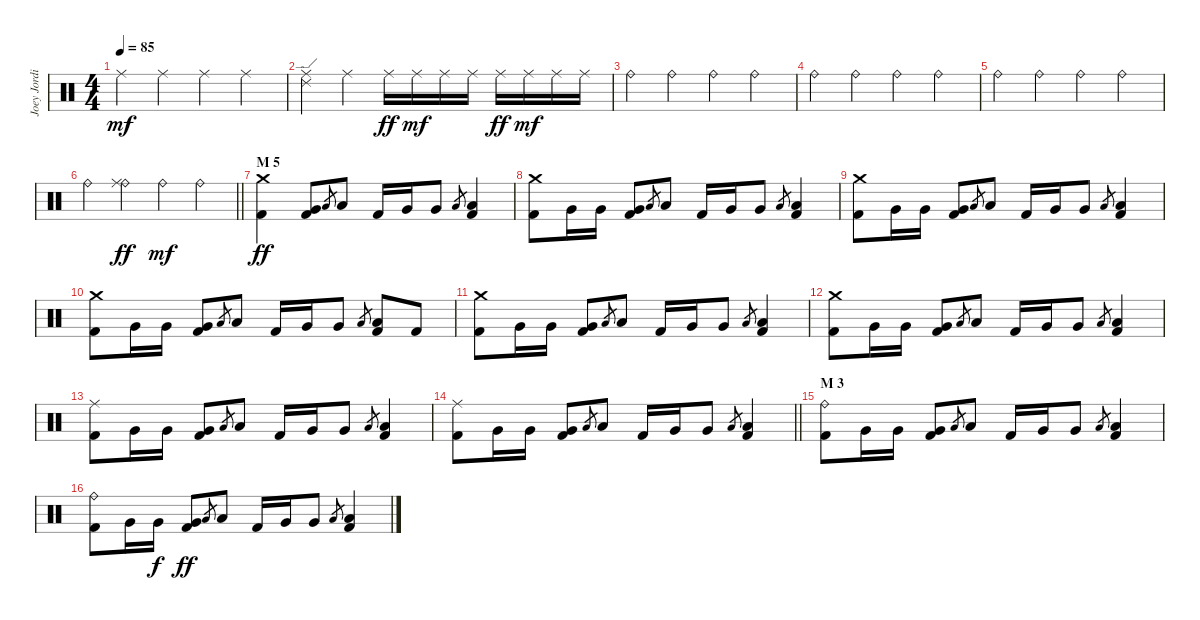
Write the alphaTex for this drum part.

\track ("Joey Jordison" "Joey Jordi") {instrument percussion}
\staff {score}
\articulation defaults
\ts (4 4)
\tempo 85
\clef neutral
\ks c "Ride (middle)".4{dy mf} "Ride (middle)".4 "Ride (middle)".4 "Ride (middle)".4
|
("Ride (middle)" "Ride (edge) 2").4 "Ride (middle)".4 "Ride (middle)".16{dy ff} "Ride (middle)".16{dy mf} "Ride (middle)".16 "Ride (middle)".16 "Ride (middle)".16{dy ff} "Ride (middle)".16{dy mf} "Ride (middle)".16 "Ride (middle)".16 |
"Ride (bell)".4 "Ride (bell)".4 "Ride (bell)".4 "Ride (bell)".4 |
"Ride (bell)".4 "Ride (bell)".4 "Ride (bell)".4 "Ride (bell)".4 |
"Ride (bell)".4 "Ride (bell)".4 "Ride (bell)".4 "Ride (bell)".4 |
\barLineRight lightlight "Ride (bell)".4
("Ride (bell)" "Ride (middle)").4{dy ff} "Ride (bell)".4{dy mf} "Ride (bell)".4 |
\section ("" "M 5")
("Crash medium (hit)" "Kick (hit) 2").4{dy ff} ("Very Low Tom (hit)" "Kick (hit) 2").8 "Low Tom (hit)".8{gr} "Low Tom (hit)".8 "Kick (hit) 2".16 "Very Low Tom (hit)".16 "Very Low Tom (hit)".8 "Low Tom (hit)".8{gr} ("Low Tom (hit)" "Kick (hit) 2").4 |
("Crash medium (hit)" "Kick (hit) 2").8 "Very Low Tom (hit)".16 "Very Low Tom (hit)".16 ("Very Low Tom (hit)" "Kick (hit) 2").8 "Low Tom (hit)".8{gr} "Low Tom (hit)".8 "Kick (hit) 2".16 "Very Low Tom (hit)".16 "Very Low Tom (hit)".8 "Low Tom (hit)".8{gr} ("Low Tom (hit)" "Kick (hit) 2").4 |
("Crash medium (hit)" "Kick (hit) 2").8 "Very Low Tom (hit)".16 "Very Low Tom (hit)".16 ("Very Low Tom (hit)" "Kick (hit) 2").8 "Low Tom (hit)".8{gr} "Low Tom (hit)".8 "Kick (hit) 2".16 "Very Low Tom (hit)".16 "Very Low Tom (hit)".8 "Low Tom (hit)".8{gr} ("Low Tom (hit)" "Kick (hit) 2").4 |
("Crash medium (hit)" "Kick (hit) 2").8 "Very Low Tom (hit)".16 "Very Low Tom (hit)".16 ("Very Low Tom (hit)" "Kick (hit) 2").8 "Low Tom (hit)".8{gr} "Low Tom (hit)".8 "Kick (hit) 2".16 "Very Low Tom (hit)".16 "Very Low Tom (hit)".8 "Low Tom (hit)".8{gr} ("Low Tom (hit)" "Kick (hit) 2").8 "Kick (hit) 2".8 |
("Crash medium (hit)" "Kick (hit) 2").8 "Very Low Tom (hit)".16 "Very Low Tom (hit)".16 ("Very Low Tom (hit)" "Kick (hit) 2").8 "Low Tom (hit)".8{gr} "Low Tom (hit)".8 "Kick (hit) 2".16 "Very Low Tom (hit)".16 "Very Low Tom (hit)".8 "Low Tom (hit)".8{gr} ("Low Tom (hit)" "Kick (hit) 2").4 |
("Crash medium (hit)" "Kick (hit) 2").8 "Very Low Tom (hit)".16 "Very Low Tom (hit)".16 ("Very Low Tom (hit)" "Kick (hit) 2").8 "Low Tom (hit)".8{gr} "Low Tom (hit)".8 "Kick (hit) 2".16 "Very Low Tom (hit)".16 "Very Low Tom (hit)".8 "Low Tom (hit)".8{gr} ("Low Tom (hit)" "Kick (hit) 2").4 |
("Ride (middle)" "Kick (hit) 2").8 "Very Low Tom (hit)".16 "Very Low Tom (hit)".16 ("Very Low Tom (hit)" "Kick (hit) 2").8 "Low Tom (hit)".8{gr} "Low Tom (hit)".8 "Kick (hit) 2".16 "Very Low Tom (hit)".16 "Very Low Tom (hit)".8 "Low Tom (hit)".8{gr} ("Low Tom (hit)" "Kick (hit) 2").4 |
\barLineRight lightlight
("Ride (middle)" "Kick (hit) 2").8 "Very Low Tom (hit)".16 "Very Low Tom (hit)".16 ("Very Low Tom (hit)" "Kick (hit) 2").8 "Low Tom (hit)".8{gr} "Low Tom (hit)".8 "Kick (hit) 2".16 "Very Low Tom (hit)".16 "Very Low Tom (hit)".8 "Low Tom (hit)".8{gr} ("Low Tom (hit)" "Kick (hit) 2").4 |
\section ("" "M 3")
("Ride (bell)" "Kick (hit) 2").8 "Very Low Tom (hit)".16 "Very Low Tom (hit)".16 ("Very Low Tom (hit)" "Kick (hit) 2").8 "Low Tom (hit)".8{gr} "Low Tom (hit)".8 "Kick (hit) 2".16 "Very Low Tom (hit)".16 "Very Low Tom (hit)".8 "Low Tom (hit)".8{gr} ("Low Tom (hit)" "Kick (hit) 2").4 |
("Ride (bell)" "Kick (hit) 2").8 "Very Low Tom (hit)".16 "Very Low Tom (hit)".16{dy f} ("Very Low Tom (hit)" "Kick (hit) 2").8{dy ff} "Low Tom (hit)".8{gr} "Low Tom (hit)".8 "Kick (hit) 2".16 "Very Low Tom (hit)".16 "Very Low Tom (hit)".8 "Low Tom (hit)".8{gr} ("Low Tom (hit)" "Kick (hit) 2").4
